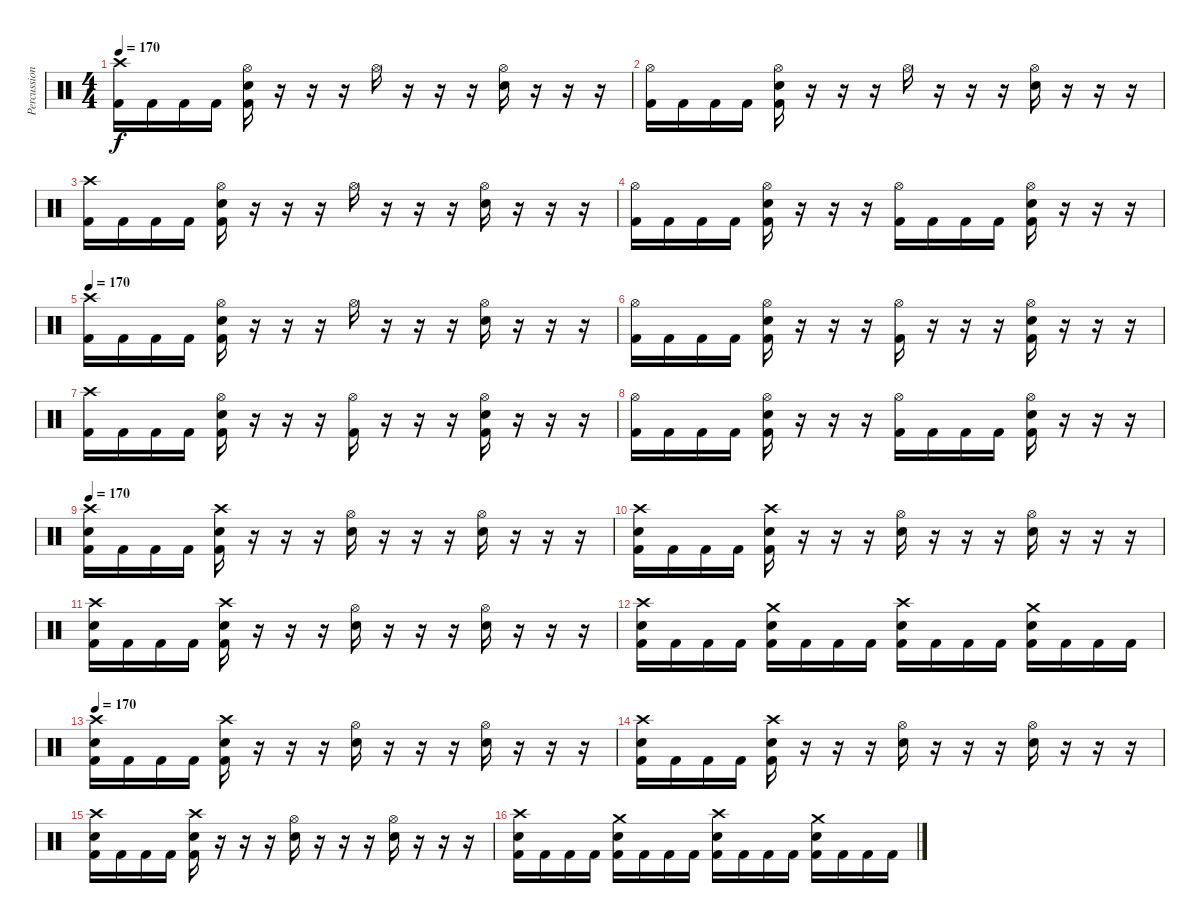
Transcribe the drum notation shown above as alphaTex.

\track ("Percussion" "Percussion") {instrument percussion}
\staff {score}
\articulation defaults
\ts (4 4)
\tempo 170
\clef neutral
\ks c
("Crash high (hit)" "Kick (hit) 2").16{dy f} "Kick (hit) 2".16 "Kick (hit) 2".16 "Kick (hit) 2".16 ("Snare (hit) 2" "Hi-Hat (open)" "Kick (hit) 2").16 r.16 r.16 r.16 "Hi-Hat (open)".16 r.16 r.16 r.16 ("Snare (hit) 2" "Hi-Hat (open)").16 r.16 r.16 r.16 |
("Hi-Hat (open)" "Kick (hit) 2").16 "Kick (hit) 2".16 "Kick (hit) 2".16 "Kick (hit) 2".16 ("Snare (hit) 2" "Hi-Hat (open)" "Kick (hit) 2").16 r.16 r.16 r.16 "Hi-Hat (open)".16 r.16 r.16 r.16 ("Snare (hit) 2" "Hi-Hat (open)").16 r.16 r.16 r.16 |
("Crash high (hit)" "Kick (hit) 2").16 "Kick (hit) 2".16 "Kick (hit) 2".16 "Kick (hit) 2".16 ("Snare (hit) 2" "Hi-Hat (open)" "Kick (hit) 2").16 r.16 r.16 r.16 "Hi-Hat (open)".16 r.16 r.16 r.16 ("Snare (hit) 2" "Hi-Hat (open)").16 r.16 r.16 r.16 |
("Hi-Hat (open)" "Kick (hit) 2").16 "Kick (hit) 2".16 "Kick (hit) 2".16 "Kick (hit) 2".16 ("Snare (hit) 2" "Hi-Hat (open)" "Kick (hit) 2").16 r.16 r.16 r.16 ("Hi-Hat (open)" "Kick (hit) 2").16 "Kick (hit) 2".16 "Kick (hit) 2".16 "Kick (hit) 2".16 ("Snare (hit) 2" "Hi-Hat (open)" "Kick (hit) 2").16 r.16 r.16 r.16 |
\tempo 170
("Crash high (hit)" "Kick (hit) 2").16 "Kick (hit) 2".16 "Kick (hit) 2".16 "Kick (hit) 2".16 ("Snare (hit) 2" "Hi-Hat (open)" "Kick (hit) 2").16 r.16 r.16 r.16 "Hi-Hat (open)".16 r.16 r.16 r.16 ("Snare (hit) 2" "Hi-Hat (open)").16 r.16 r.16 r.16 |
("Hi-Hat (open)" "Kick (hit) 2").16 "Kick (hit) 2".16 "Kick (hit) 2".16 "Kick (hit) 2".16 ("Snare (hit) 2" "Hi-Hat (open)" "Kick (hit) 2").16 r.16 r.16 r.16 ("Hi-Hat (open)" "Kick (hit) 2").16 r.16 r.16 r.16 ("Snare (hit) 2" "Hi-Hat (open)" "Kick (hit) 2").16 r.16 r.16 r.16 |
("Crash high (hit)" "Kick (hit) 2").16 "Kick (hit) 2".16 "Kick (hit) 2".16 "Kick (hit) 2".16 ("Snare (hit) 2" "Hi-Hat (open)" "Kick (hit) 2").16 r.16 r.16 r.16 ("Hi-Hat (open)" "Kick (hit) 2").16 r.16 r.16 r.16 ("Snare (hit) 2" "Hi-Hat (open)" "Kick (hit) 2").16 r.16 r.16 r.16 |
("Hi-Hat (open)" "Kick (hit) 2").16 "Kick (hit) 2".16 "Kick (hit) 2".16 "Kick (hit) 2".16 ("Snare (hit) 2" "Hi-Hat (open)" "Kick (hit) 2").16 r.16 r.16 r.16 ("Hi-Hat (open)" "Kick (hit) 2").16 "Kick (hit) 2".16 "Kick (hit) 2".16 "Kick (hit) 2".16 ("Snare (hit) 2" "Hi-Hat (open)" "Kick (hit) 2").16 r.16 r.16 r.16 |
\tempo 170
("Crash high (hit)" "Snare (hit) 2" "Kick (hit) 2").16 "Kick (hit) 2".16 "Kick (hit) 2".16 "Kick (hit) 2".16 ("Crash high (hit)" "Snare (hit) 2" "Kick (hit) 2").16 r.16 r.16 r.16 ("Hi-Hat (open)" "Snare (hit) 2").16 r.16 r.16 r.16 ("Hi-Hat (open)" "Snare (hit) 2").16 r.16 r.16 r.16 |
("Crash high (hit)" "Snare (hit) 2" "Kick (hit) 2").16 "Kick (hit) 2".16 "Kick (hit) 2".16 "Kick (hit) 2".16 ("Crash high (hit)" "Snare (hit) 2" "Kick (hit) 2").16 r.16 r.16 r.16 ("Hi-Hat (open)" "Snare (hit) 2").16 r.16 r.16 r.16 ("Hi-Hat (open)" "Snare (hit) 2").16 r.16 r.16 r.16 |
("Crash high (hit)" "Snare (hit) 2" "Kick (hit) 2").16 "Kick (hit) 2".16 "Kick (hit) 2".16 "Kick (hit) 2".16 ("Crash high (hit)" "Snare (hit) 2" "Kick (hit) 2").16 r.16 r.16 r.16 ("Hi-Hat (open)" "Snare (hit) 2").16 r.16 r.16 r.16 ("Hi-Hat (open)" "Snare (hit) 2").16 r.16 r.16 r.16 |
("Crash high (hit)" "Snare (hit) 2" "Kick (hit) 2").16 "Kick (hit) 2".16 "Kick (hit) 2".16 "Kick (hit) 2".16 ("Crash medium (hit)" "Snare (hit) 2" "Kick (hit) 2").16 "Kick (hit) 2".16 "Kick (hit) 2".16 "Kick (hit) 2".16 ("Crash high (hit)" "Snare (hit) 2" "Kick (hit) 2").16 "Kick (hit) 2".16 "Kick (hit) 2".16 "Kick (hit) 2".16 ("Crash medium (hit)" "Snare (hit) 2" "Kick (hit) 2").16 "Kick (hit) 2".16 "Kick (hit) 2".16 "Kick (hit) 2".16 |
\tempo 170
("Crash high (hit)" "Snare (hit) 2" "Kick (hit) 2").16 "Kick (hit) 2".16 "Kick (hit) 2".16 "Kick (hit) 2".16 ("Crash high (hit)" "Snare (hit) 2" "Kick (hit) 2").16 r.16 r.16 r.16 ("Hi-Hat (open)" "Snare (hit) 2").16 r.16 r.16 r.16 ("Hi-Hat (open)" "Snare (hit) 2").16 r.16 r.16 r.16 |
("Crash high (hit)" "Snare (hit) 2" "Kick (hit) 2").16 "Kick (hit) 2".16 "Kick (hit) 2".16 "Kick (hit) 2".16 ("Crash high (hit)" "Snare (hit) 2" "Kick (hit) 2").16 r.16 r.16 r.16 ("Hi-Hat (open)" "Snare (hit) 2").16 r.16 r.16 r.16 ("Hi-Hat (open)" "Snare (hit) 2").16 r.16 r.16 r.16 |
("Crash high (hit)" "Snare (hit) 2" "Kick (hit) 2").16 "Kick (hit) 2".16 "Kick (hit) 2".16 "Kick (hit) 2".16 ("Crash high (hit)" "Snare (hit) 2" "Kick (hit) 2").16 r.16 r.16 r.16 ("Hi-Hat (open)" "Snare (hit) 2").16 r.16 r.16 r.16 ("Hi-Hat (open)" "Snare (hit) 2").16 r.16 r.16 r.16 |
("Crash high (hit)" "Snare (hit) 2" "Kick (hit) 2").16 "Kick (hit) 2".16 "Kick (hit) 2".16 "Kick (hit) 2".16 ("Crash medium (hit)" "Snare (hit) 2" "Kick (hit) 2").16 "Kick (hit) 2".16 "Kick (hit) 2".16 "Kick (hit) 2".16 ("Crash high (hit)" "Snare (hit) 2" "Kick (hit) 2").16 "Kick (hit) 2".16 "Kick (hit) 2".16 "Kick (hit) 2".16 ("Crash medium (hit)" "Snare (hit) 2" "Kick (hit) 2").16 "Kick (hit) 2".16 "Kick (hit) 2".16 "Kick (hit) 2".16
